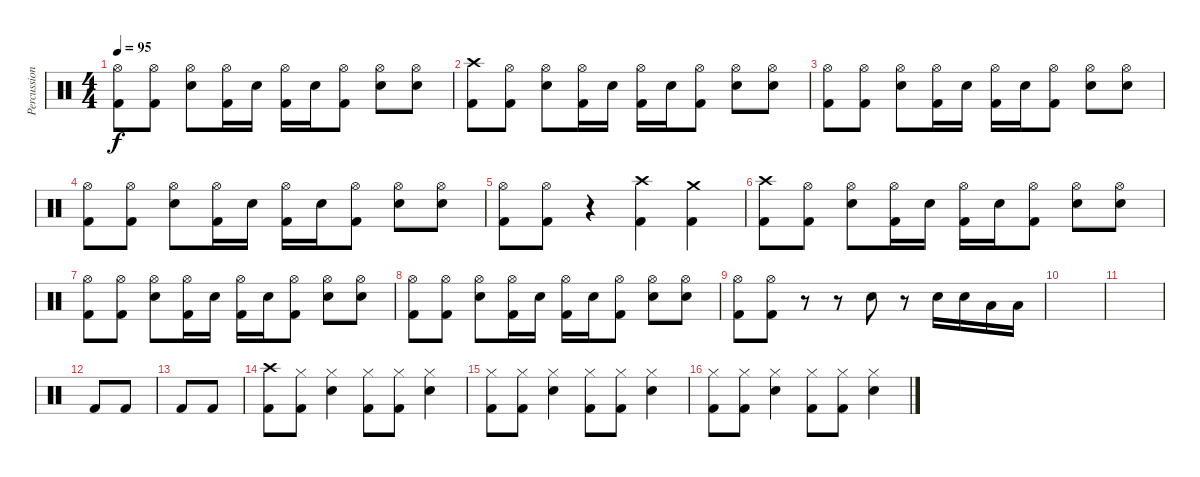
\track ("Percussion" "Percussion") {instrument percussion}
\staff {score}
\articulation defaults
\ts (4 4)
\tempo 95
\clef neutral
\ks c
("Kick (hit) 2" "Hi-Hat (open)").8{dy f} ("Kick (hit) 2" "Hi-Hat (open)").8 ("Snare (hit) 2" "Hi-Hat (open)").8 ("Kick (hit) 2" "Hi-Hat (open)").16 "Snare (hit) 2".16 ("Kick (hit) 2" "Hi-Hat (open)").16 "Snare (hit) 2".16 ("Kick (hit) 2" "Hi-Hat (open)").8 ("Snare (hit) 2" "Hi-Hat (open)").8 ("Snare (hit) 2" "Hi-Hat (open)").8 |
("Kick (hit) 2" "Crash high (hit)").8 ("Kick (hit) 2" "Hi-Hat (open)").8 ("Snare (hit) 2" "Hi-Hat (open)").8 ("Kick (hit) 2" "Hi-Hat (open)").16 "Snare (hit) 2".16 ("Kick (hit) 2" "Hi-Hat (open)").16 "Snare (hit) 2".16 ("Kick (hit) 2" "Hi-Hat (open)").8 ("Snare (hit) 2" "Hi-Hat (open)").8 ("Snare (hit) 2" "Hi-Hat (open)").8 |
("Kick (hit) 2" "Hi-Hat (open)").8 ("Kick (hit) 2" "Hi-Hat (open)").8 ("Snare (hit) 2" "Hi-Hat (open)").8 ("Kick (hit) 2" "Hi-Hat (open)").16 "Snare (hit) 2".16 ("Kick (hit) 2" "Hi-Hat (open)").16 "Snare (hit) 2".16 ("Kick (hit) 2" "Hi-Hat (open)").8 ("Snare (hit) 2" "Hi-Hat (open)").8 ("Snare (hit) 2" "Hi-Hat (open)").8 |
("Kick (hit) 2" "Hi-Hat (open)").8 ("Kick (hit) 2" "Hi-Hat (open)").8 ("Snare (hit) 2" "Hi-Hat (open)").8 ("Kick (hit) 2" "Hi-Hat (open)").16 "Snare (hit) 2".16 ("Kick (hit) 2" "Hi-Hat (open)").16 "Snare (hit) 2".16 ("Kick (hit) 2" "Hi-Hat (open)").8 ("Snare (hit) 2" "Hi-Hat (open)").8 ("Snare (hit) 2" "Hi-Hat (open)").8 |
("Kick (hit) 2" "Hi-Hat (open)").8 ("Kick (hit) 2" "Hi-Hat (open)").8 r.4 ("Kick (hit) 2" "Crash high (hit)").4 ("Kick (hit) 2" "Crash medium (hit)").4 |
("Kick (hit) 2" "Crash high (hit)").8 ("Kick (hit) 2" "Hi-Hat (open)").8 ("Snare (hit) 2" "Hi-Hat (open)").8 ("Kick (hit) 2" "Hi-Hat (open)").16 "Snare (hit) 2".16 ("Kick (hit) 2" "Hi-Hat (open)").16 "Snare (hit) 2".16 ("Kick (hit) 2" "Hi-Hat (open)").8 ("Snare (hit) 2" "Hi-Hat (open)").8 ("Snare (hit) 2" "Hi-Hat (open)").8 |
("Kick (hit) 2" "Hi-Hat (open)").8 ("Kick (hit) 2" "Hi-Hat (open)").8 ("Snare (hit) 2" "Hi-Hat (open)").8 ("Kick (hit) 2" "Hi-Hat (open)").16 "Snare (hit) 2".16 ("Kick (hit) 2" "Hi-Hat (open)").16 "Snare (hit) 2".16 ("Kick (hit) 2" "Hi-Hat (open)").8 ("Snare (hit) 2" "Hi-Hat (open)").8 ("Snare (hit) 2" "Hi-Hat (open)").8 |
("Kick (hit) 2" "Hi-Hat (open)").8 ("Kick (hit) 2" "Hi-Hat (open)").8 ("Snare (hit) 2" "Hi-Hat (open)").8 ("Kick (hit) 2" "Hi-Hat (open)").16 "Snare (hit) 2".16 ("Kick (hit) 2" "Hi-Hat (open)").16 "Snare (hit) 2".16 ("Kick (hit) 2" "Hi-Hat (open)").8 ("Snare (hit) 2" "Hi-Hat (open)").8 ("Snare (hit) 2" "Hi-Hat (open)").8 |
("Kick (hit) 2" "Hi-Hat (open)").8 ("Kick (hit) 2" "Hi-Hat (open)").8 r.8 r.8 "Snare (hit) 2".8 r.8 "Snare (hit) 2".16 "Snare (hit) 2".16 "Low Tom (hit)".16 "Low Tom (hit)".16 |
|
|
"Kick (hit) 2".8 "Kick (hit) 2".8 |
"Kick (hit) 2".8 "Kick (hit) 2".8 |
("Kick (hit) 2" "Crash high (hit)").8 ("Kick (hit) 2" "Hi-Hat (closed)").8 ("Snare (hit) 2" "Hi-Hat (closed)").4 ("Kick (hit) 2" "Hi-Hat (closed)").8 ("Kick (hit) 2" "Hi-Hat (closed)").8 ("Snare (hit) 2" "Hi-Hat (closed)").4 |
("Kick (hit) 2" "Hi-Hat (closed)").8 ("Kick (hit) 2" "Hi-Hat (closed)").8 ("Snare (hit) 2" "Hi-Hat (closed)").4 ("Kick (hit) 2" "Hi-Hat (closed)").8 ("Kick (hit) 2" "Hi-Hat (closed)").8 ("Snare (hit) 2" "Hi-Hat (closed)").4 |
("Kick (hit) 2" "Hi-Hat (closed)").8 ("Kick (hit) 2" "Hi-Hat (closed)").8 ("Snare (hit) 2" "Hi-Hat (closed)").4 ("Kick (hit) 2" "Hi-Hat (closed)").8 ("Kick (hit) 2" "Hi-Hat (closed)").8 ("Snare (hit) 2" "Hi-Hat (closed)").4
